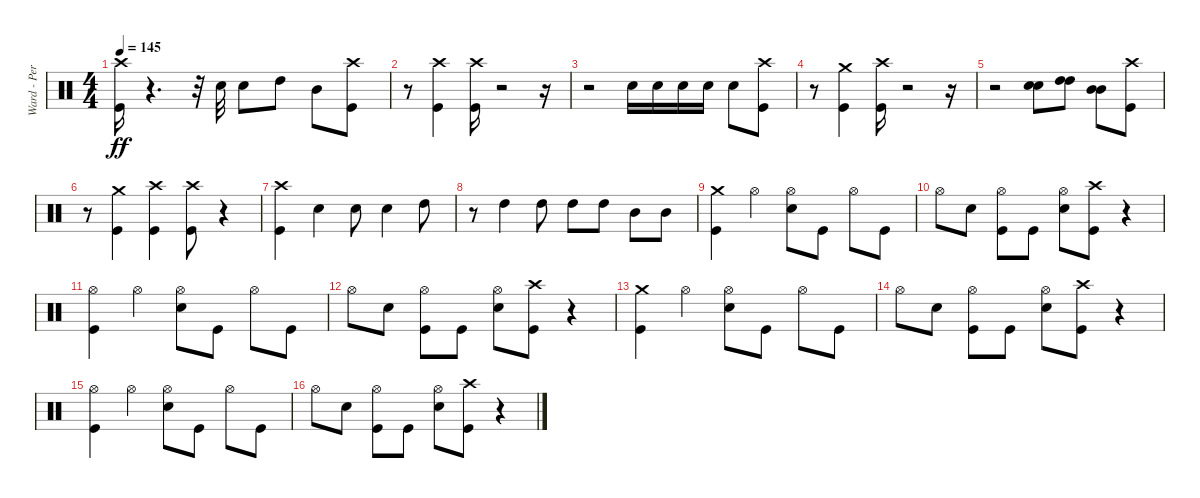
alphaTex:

\track ("Ward - Percussion" "Ward - Per") {instrument percussion}
\staff {score}
\articulation defaults
\ts (4 4)
\tempo 145
\clef neutral
\ks c
("Kick (hit)" "Crash high (hit)").16{dy ff} r.4{d} r.32 "Snare (hit) 2".32 "Snare (hit) 2".8 "High Tom (hit)".8 "Mid Tom (hit)".8 ("Kick (hit)" "Crash high (hit)").8 |
r.8 ("Kick (hit)" "Crash high (hit)").4 ("Kick (hit)" "Crash high (hit)").16 r.2 r.16 |
r.2 "Snare (hit) 2".16 "Snare (hit) 2".16 "Snare (hit) 2".16 "Snare (hit) 2".16 "Snare (hit) 2".8 ("Kick (hit)" "Crash high (hit)").8 |
r.8 ("Kick (hit)" "Crash medium (hit)").4 ("Kick (hit)" "Crash high (hit)").16 r.2 r.16 |
r.2 ("Snare (hit) 2" "Snare (hit) 2").8 ("High Tom (hit)" "High Tom (hit)").8 ("Mid Tom (hit)" "Mid Tom (hit)").8 ("Kick (hit)" "Crash high (hit)").8 |
r.8 ("Kick (hit)" "Crash medium (hit)").4 ("Kick (hit)" "Crash high (hit)").4 ("Kick (hit)" "Crash high (hit)").8 r.4 |
("Kick (hit)" "Crash high (hit)").4 "Snare (hit) 2".4 "Snare (hit) 2".8 "Snare (hit) 2".4 "High Tom (hit)".8 |
r.8 "High Tom (hit)".4 "High Tom (hit)".8 "High Tom (hit)".8 "High Tom (hit)".8 "Mid Tom (hit)".8 "Mid Tom (hit)".8 |
("Kick (hit)" "Crash medium (hit)").4 "Hi-Hat (open)".4 ("Hi-Hat (open)" "Snare (hit) 2").8 "Kick (hit)".8 "Hi-Hat (open)".8 "Kick (hit)".8 |
"Hi-Hat (open)".8 "Snare (hit) 2".8 ("Hi-Hat (open)" "Kick (hit)").8 "Kick (hit)".8 ("Hi-Hat (open)" "Snare (hit) 2").8 ("Kick (hit)" "Crash high (hit)").8 r.4 |
("Hi-Hat (open)" "Kick (hit)").4 "Hi-Hat (open)".4 ("Hi-Hat (open)" "Snare (hit) 2").8 "Kick (hit)".8 "Hi-Hat (open)".8 "Kick (hit)".8 |
"Hi-Hat (open)".8 "Snare (hit) 2".8 ("Hi-Hat (open)" "Kick (hit)").8 "Kick (hit)".8 ("Hi-Hat (open)" "Snare (hit) 2").8 ("Kick (hit)" "Crash high (hit)").8 r.4 |
("Kick (hit)" "Crash medium (hit)").4 "Hi-Hat (open)".4 ("Hi-Hat (open)" "Snare (hit) 2").8 "Kick (hit)".8 "Hi-Hat (open)".8 "Kick (hit)".8 |
"Hi-Hat (open)".8 "Snare (hit) 2".8 ("Hi-Hat (open)" "Kick (hit)").8 "Kick (hit)".8 ("Hi-Hat (open)" "Snare (hit) 2").8 ("Kick (hit)" "Crash high (hit)").8 r.4 |
("Hi-Hat (open)" "Kick (hit)").4 "Hi-Hat (open)".4 ("Hi-Hat (open)" "Snare (hit) 2").8 "Kick (hit)".8 "Hi-Hat (open)".8 "Kick (hit)".8 |
"Hi-Hat (open)".8 "Snare (hit) 2".8 ("Hi-Hat (open)" "Kick (hit)").8 "Kick (hit)".8 ("Hi-Hat (open)" "Snare (hit) 2").8 ("Kick (hit)" "Crash high (hit)").8 r.4
